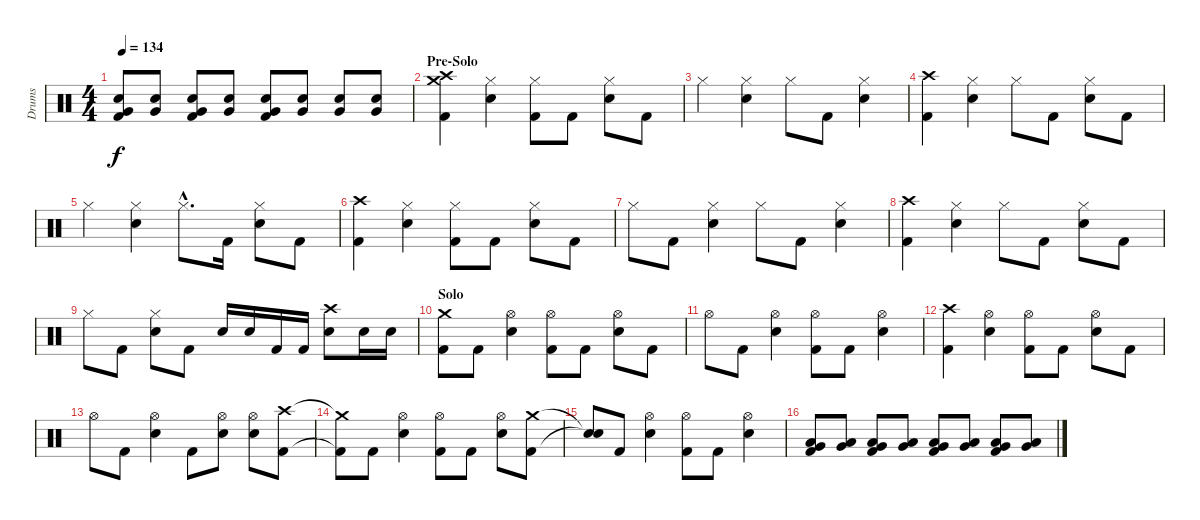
\track ("Drums" "Drums") {instrument percussion}
\staff {score}
\articulation defaults
\ts (4 4)
\tempo 134
\clef neutral
\ks c
("Very Low Tom (hit)" "Snare (hit) 2" "Kick (hit) 2").8{dy f} ("Very Low Tom (hit)" "Snare (hit) 2").8 ("Very Low Tom (hit)" "Snare (hit) 2" "Kick (hit) 2").8 ("Very Low Tom (hit)" "Snare (hit) 2").8 ("Very Low Tom (hit)" "Snare (hit) 2" "Kick (hit) 2").8 ("Very Low Tom (hit)" "Snare (hit) 2").8 ("Very Low Tom (hit)" "Snare (hit) 2").8 ("Very Low Tom (hit)" "Snare (hit) 2").8 |
\section ("" "Pre-Solo")
("Crash medium (hit)" "Crash high (hit)" "Kick (hit) 2").4 ("Hi-Hat (closed)" "Snare (hit) 2").4 ("Hi-Hat (closed)" "Kick (hit) 2").8 "Kick (hit) 2".8 ("Hi-Hat (closed)" "Snare (hit) 2").8 "Kick (hit) 2".8 |
"Hi-Hat (closed)".4 ("Hi-Hat (closed)" "Snare (hit) 2").4 "Hi-Hat (closed)".8 "Kick (hit) 2".8 ("Hi-Hat (closed)" "Snare (hit) 2").4 |
("Crash high (hit)" "Kick (hit) 2").4 ("Hi-Hat (closed)" "Snare (hit) 2").4 "Hi-Hat (closed)".8 "Kick (hit) 2".8 ("Hi-Hat (closed)" "Snare (hit) 2").8 "Kick (hit) 2".8 |
"Hi-Hat (closed)".4 ("Hi-Hat (closed)" "Snare (hit) 2").4 "Hi-Hat (closed)"{hac}.8{d} "Kick (hit) 2".16 ("Hi-Hat (closed)" "Snare (hit) 2").8 "Kick (hit) 2".8 |
("Crash high (hit)" "Kick (hit) 2").4 ("Hi-Hat (closed)" "Snare (hit) 2").4 ("Hi-Hat (closed)" "Kick (hit) 2").8 "Kick (hit) 2".8 ("Hi-Hat (closed)" "Snare (hit) 2").8 "Kick (hit) 2".8 |
"Hi-Hat (closed)".8 "Kick (hit) 2".8 ("Hi-Hat (closed)" "Snare (hit) 2").4 "Hi-Hat (closed)".8 "Kick (hit) 2".8 ("Hi-Hat (closed)" "Snare (hit) 2").4 |
("Crash high (hit)" "Kick (hit) 2").4 ("Hi-Hat (closed)" "Snare (hit) 2").4 "Hi-Hat (closed)".8 "Kick (hit) 2".8 ("Hi-Hat (closed)" "Snare (hit) 2").8 "Kick (hit) 2".8 |
"Hi-Hat (closed)".8 "Kick (hit) 2".8 ("Hi-Hat (closed)" "Snare (hit) 2").8 "Kick (hit) 2".8 "Snare (hit) 2".16 "Snare (hit) 2".16 "Kick (hit) 2".16 "Kick (hit) 2".16 ("Crash high (hit)" "Snare (hit) 2").8 "Snare (hit) 2".16 "Snare (hit) 2".16 |
\section ("" "Solo")
("Crash medium (hit)" "Kick (hit) 2").8 "Kick (hit) 2".8 ("Hi-Hat (open)" "Snare (hit) 2").4 ("Hi-Hat (open)" "Kick (hit) 2").8 "Kick (hit) 2".8 ("Hi-Hat (open)" "Snare (hit) 2").8 "Kick (hit) 2".8 |
"Hi-Hat (open)".8 "Kick (hit) 2".8 ("Hi-Hat (open)" "Snare (hit) 2").4 ("Hi-Hat (open)" "Kick (hit) 2").8 "Kick (hit) 2".8 ("Hi-Hat (open)" "Snare (hit) 2").4 |
("Crash high (hit)" "Kick (hit) 2").4 ("Hi-Hat (open)" "Snare (hit) 2").4 ("Hi-Hat (open)" "Kick (hit) 2").8 "Kick (hit) 2".8 ("Hi-Hat (open)" "Snare (hit) 2").8 "Kick (hit) 2".8 |
"Hi-Hat (open)".8 "Kick (hit) 2".8 ("Hi-Hat (open)" "Snare (hit) 2").4 "Kick (hit) 2".8 ("Hi-Hat (open)" "Snare (hit) 2").8 ("Hi-Hat (open)" "Snare (hit) 2").8 ("Crash high (hit)" "Kick (hit) 2").8 |
("Crash medium (hit)"{t} "Kick (hit) 2"{t}).8 "Kick (hit) 2".8 ("Hi-Hat (open)" "Snare (hit) 2").4 ("Hi-Hat (open)" "Kick (hit) 2").8 "Kick (hit) 2".8 ("Hi-Hat (open)" "Snare (hit) 2").8 ("Crash medium (hit)" "Kick (hit) 2").8 |
("Snare (hit)"{t} "Snare (hit)"{t}).8 "Kick (hit) 2".8 ("Hi-Hat (open)" "Snare (hit) 2").4 ("Hi-Hat (open)" "Kick (hit) 2").8 "Kick (hit) 2".8 ("Hi-Hat (open)" "Snare (hit) 2").4 |
("Low Tom (hit)" "Very Low Tom (hit)" "Kick (hit) 2").8{volume 10} ("Low Tom (hit)" "Very Low Tom (hit)").8{volume 14} ("Low Tom (hit)" "Very Low Tom (hit)" "Kick (hit) 2").8 ("Low Tom (hit)" "Very Low Tom (hit)").8 ("Low Tom (hit)" "Very Low Tom (hit)" "Kick (hit) 2").8 ("Low Tom (hit)" "Very Low Tom (hit)").8 ("Low Tom (hit)" "Very Low Tom (hit)" "Kick (hit) 2").8 ("Low Tom (hit)" "Very Low Tom (hit)").8
